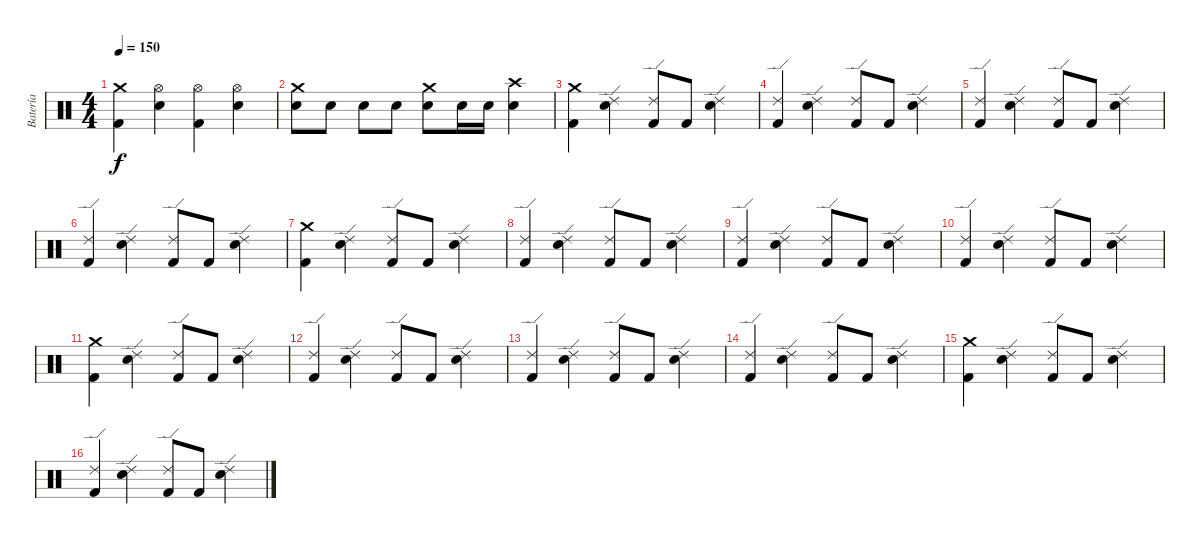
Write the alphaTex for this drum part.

\track ("Batería" "Batería") {instrument percussion}
\staff {score}
\articulation defaults
\ts (4 4)
\tempo 150
\clef neutral
\ks c
("Crash medium (hit)" "Kick (hit) 2").4{dy f} ("Hi-Hat (open)" "Electric Snare (hit)").4 ("Hi-Hat (open)" "Kick (hit) 2").4 ("Hi-Hat (open)" "Electric Snare (hit)").4 |
("Crash medium (hit)" "Electric Snare (hit)").8 "Electric Snare (hit)".8 "Electric Snare (hit)".8 "Electric Snare (hit)".8 ("Crash medium (hit)" "Electric Snare (hit)").8 "Electric Snare (hit)".16 "Electric Snare (hit)".16 ("Crash high (hit)" "Electric Snare (hit)").4 |
("Crash medium (hit)" "Kick (hit) 2").4 ("Ride (edge) 2" "Electric Snare (hit)").4 ("Ride (edge) 2" "Kick (hit) 2").8 "Kick (hit) 2".8 ("Ride (edge) 2" "Electric Snare (hit)").4 |
("Ride (edge) 2" "Kick (hit) 2").4 ("Ride (edge) 2" "Electric Snare (hit)").4 ("Ride (edge) 2" "Kick (hit) 2").8 "Kick (hit) 2".8 ("Ride (edge) 2" "Electric Snare (hit)").4 |
("Ride (edge) 2" "Kick (hit) 2").4 ("Ride (edge) 2" "Electric Snare (hit)").4 ("Ride (edge) 2" "Kick (hit) 2").8 "Kick (hit) 2".8 ("Ride (edge) 2" "Electric Snare (hit)").4 |
("Ride (edge) 2" "Kick (hit) 2").4 ("Ride (edge) 2" "Electric Snare (hit)").4 ("Ride (edge) 2" "Kick (hit) 2").8 "Kick (hit) 2".8 ("Ride (edge) 2" "Electric Snare (hit)").4 |
("Crash medium (hit)" "Kick (hit) 2").4 ("Ride (edge) 2" "Electric Snare (hit)").4 ("Ride (edge) 2" "Kick (hit) 2").8 "Kick (hit) 2".8 ("Ride (edge) 2" "Electric Snare (hit)").4 |
("Ride (edge) 2" "Kick (hit) 2").4 ("Ride (edge) 2" "Electric Snare (hit)").4 ("Ride (edge) 2" "Kick (hit) 2").8 "Kick (hit) 2".8 ("Ride (edge) 2" "Electric Snare (hit)").4 |
("Ride (edge) 2" "Kick (hit) 2").4 ("Ride (edge) 2" "Electric Snare (hit)").4 ("Ride (edge) 2" "Kick (hit) 2").8 "Kick (hit) 2".8 ("Ride (edge) 2" "Electric Snare (hit)").4 |
("Ride (edge) 2" "Kick (hit) 2").4 ("Ride (edge) 2" "Electric Snare (hit)").4 ("Ride (edge) 2" "Kick (hit) 2").8 "Kick (hit) 2".8 ("Ride (edge) 2" "Electric Snare (hit)").4 |
("Crash medium (hit)" "Kick (hit) 2").4 ("Ride (edge) 2" "Electric Snare (hit)").4 ("Ride (edge) 2" "Kick (hit) 2").8 "Kick (hit) 2".8 ("Ride (edge) 2" "Electric Snare (hit)").4 |
("Ride (edge) 2" "Kick (hit) 2").4 ("Ride (edge) 2" "Electric Snare (hit)").4 ("Ride (edge) 2" "Kick (hit) 2").8 "Kick (hit) 2".8 ("Ride (edge) 2" "Electric Snare (hit)").4 |
("Ride (edge) 2" "Kick (hit) 2").4 ("Ride (edge) 2" "Electric Snare (hit)").4 ("Ride (edge) 2" "Kick (hit) 2").8 "Kick (hit) 2".8 ("Ride (edge) 2" "Electric Snare (hit)").4 |
("Ride (edge) 2" "Kick (hit) 2").4 ("Ride (edge) 2" "Electric Snare (hit)").4 ("Ride (edge) 2" "Kick (hit) 2").8 "Kick (hit) 2".8 ("Ride (edge) 2" "Electric Snare (hit)").4 |
("Crash medium (hit)" "Kick (hit) 2").4 ("Ride (edge) 2" "Electric Snare (hit)").4 ("Ride (edge) 2" "Kick (hit) 2").8 "Kick (hit) 2".8 ("Ride (edge) 2" "Electric Snare (hit)").4 |
("Ride (edge) 2" "Kick (hit) 2").4 ("Ride (edge) 2" "Electric Snare (hit)").4 ("Ride (edge) 2" "Kick (hit) 2").8 "Kick (hit) 2".8 ("Ride (edge) 2" "Electric Snare (hit)").4
